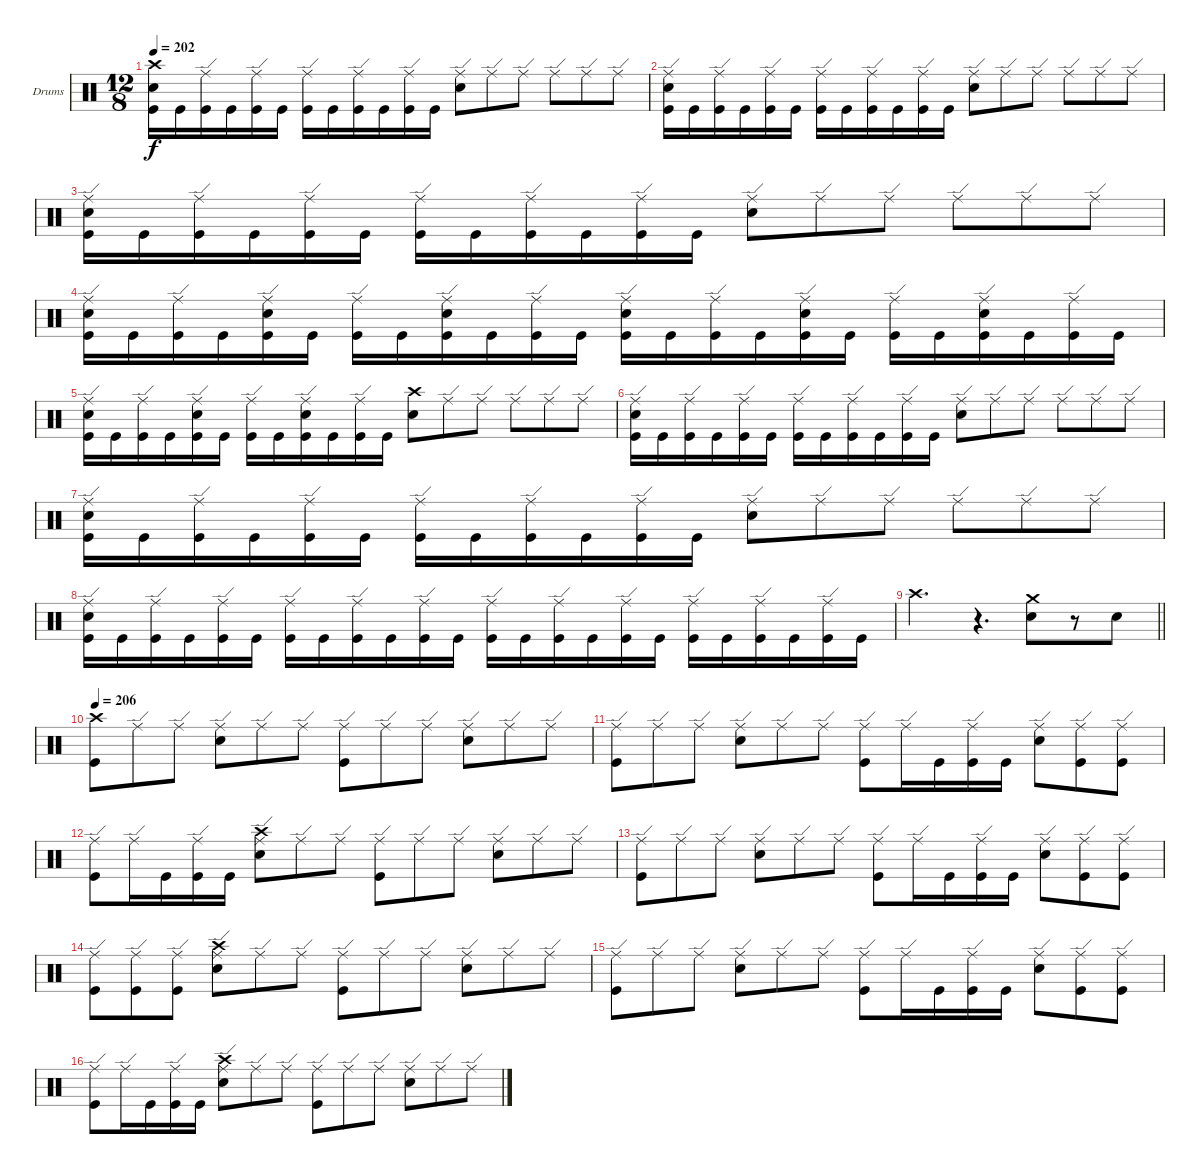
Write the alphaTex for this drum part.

\bracketExtendMode groupsimilarinstruments
\firstSystemTrackNameOrientation horizontal
\otherSystemsTrackNameOrientation horizontal
\track ("Drumkit" "Drums") {instrument percussion}
\staff {score}
\articulation defaults
\ts (12 8)
\tempo 202
\clef neutral
\ks c
("Kick (hit)" "Snare (hit) 2" "Crash high (hit)").16{dy f} "Kick (hit)".16 ("Kick (hit)" "Ride (edge)").16 "Kick (hit)".16 ("Kick (hit)" "Ride (edge)").16 "Kick (hit)".16 ("Kick (hit)" "Ride (edge)").16 "Kick (hit)".16 ("Kick (hit)" "Ride (edge)").16 "Kick (hit)".16 ("Kick (hit)" "Ride (edge)").16 "Kick (hit)".16 ("Snare (hit) 2" "Ride (edge)").8 "Ride (edge)".8 "Ride (edge)".8 "Ride (edge)".8 "Ride (edge)".8 "Ride (edge)".8 |
("Kick (hit)" "Snare (hit) 2" "Ride (edge)").16 "Kick (hit)".16 ("Kick (hit)" "Ride (edge)").16 "Kick (hit)".16 ("Kick (hit)" "Ride (edge)").16 "Kick (hit)".16 ("Kick (hit)" "Ride (edge)").16 "Kick (hit)".16 ("Kick (hit)" "Ride (edge)").16 "Kick (hit)".16 ("Kick (hit)" "Ride (edge)").16 "Kick (hit)".16 ("Snare (hit) 2" "Ride (edge)").8 "Ride (edge)".8 "Ride (edge)".8 "Ride (edge)".8 "Ride (edge)".8 "Ride (edge)".8 |
("Kick (hit)" "Snare (hit) 2" "Ride (edge)").16 "Kick (hit)".16 ("Kick (hit)" "Ride (edge)").16 "Kick (hit)".16 ("Kick (hit)" "Ride (edge)").16 "Kick (hit)".16 ("Kick (hit)" "Ride (edge)").16 "Kick (hit)".16 ("Kick (hit)" "Ride (edge)").16 "Kick (hit)".16 ("Kick (hit)" "Ride (edge)").16 "Kick (hit)".16 ("Snare (hit) 2" "Ride (edge)").8 "Ride (edge)".8 "Ride (edge)".8 "Ride (edge)".8 "Ride (edge)".8 "Ride (edge)".8 |
("Kick (hit)" "Snare (hit) 2" "Ride (edge)").16 "Kick (hit)".16 ("Kick (hit)" "Ride (edge)").16 "Kick (hit)".16 ("Kick (hit)" "Snare (hit) 2" "Ride (edge)").16 "Kick (hit)".16 ("Kick (hit)" "Ride (edge)").16 "Kick (hit)".16 ("Kick (hit)" "Snare (hit) 2" "Ride (edge)").16 "Kick (hit)".16 ("Kick (hit)" "Ride (edge)").16 "Kick (hit)".16 ("Kick (hit)" "Snare (hit) 2" "Ride (edge)").16 "Kick (hit)".16 ("Kick (hit)" "Ride (edge)").16 "Kick (hit)".16 ("Kick (hit)" "Snare (hit) 2" "Ride (edge)").16 "Kick (hit)".16 ("Kick (hit)" "Ride (edge)").16 "Kick (hit)".16 ("Kick (hit)" "Snare (hit) 2" "Ride (edge)").16 "Kick (hit)".16 ("Kick (hit)" "Ride (edge)").16 "Kick (hit)".16 |
("Kick (hit)" "Snare (hit) 2" "Ride (edge)").16 "Kick (hit)".16 ("Kick (hit)" "Ride (edge)").16 "Kick (hit)".16 ("Kick (hit)" "Snare (hit) 2" "Ride (edge)").16 "Kick (hit)".16 ("Kick (hit)" "Ride (edge)").16 "Kick (hit)".16 ("Kick (hit)" "Snare (hit) 2" "Ride (edge)").16 "Kick (hit)".16 ("Kick (hit)" "Ride (edge)").16 "Kick (hit)".16 ("Snare (hit) 2" "Crash high (hit)").8 "Ride (edge)".8 "Ride (edge)".8 "Ride (edge)".8 "Ride (edge)".8 "Ride (edge)".8 |
("Kick (hit)" "Snare (hit) 2" "Ride (edge)").16 "Kick (hit)".16 ("Kick (hit)" "Ride (edge)").16 "Kick (hit)".16 ("Kick (hit)" "Ride (edge)").16 "Kick (hit)".16 ("Kick (hit)" "Ride (edge)").16 "Kick (hit)".16 ("Kick (hit)" "Ride (edge)").16 "Kick (hit)".16 ("Kick (hit)" "Ride (edge)").16 "Kick (hit)".16 ("Snare (hit) 2" "Ride (edge)").8 "Ride (edge)".8 "Ride (edge)".8 "Ride (edge)".8 "Ride (edge)".8 "Ride (edge)".8 |
("Kick (hit)" "Snare (hit) 2" "Ride (edge)").16 "Kick (hit)".16 ("Kick (hit)" "Ride (edge)").16 "Kick (hit)".16 ("Kick (hit)" "Ride (edge)").16 "Kick (hit)".16 ("Kick (hit)" "Ride (edge)").16 "Kick (hit)".16 ("Kick (hit)" "Ride (edge)").16 "Kick (hit)".16 ("Kick (hit)" "Ride (edge)").16 "Kick (hit)".16 ("Snare (hit) 2" "Ride (edge)").8 "Ride (edge)".8 "Ride (edge)".8 "Ride (edge)".8 "Ride (edge)".8 "Ride (edge)".8 |
("Kick (hit)" "Ride (edge)" "Snare (hit) 2").16 "Kick (hit)".16 ("Kick (hit)" "Ride (edge)").16 "Kick (hit)".16 ("Kick (hit)" "Ride (edge)").16 "Kick (hit)".16 ("Kick (hit)" "Ride (edge)").16 "Kick (hit)".16 ("Kick (hit)" "Ride (edge)").16 "Kick (hit)".16 ("Kick (hit)" "Ride (edge)").16 "Kick (hit)".16 ("Kick (hit)" "Ride (edge)").16 "Kick (hit)".16 ("Kick (hit)" "Ride (edge)").16 "Kick (hit)".16 ("Kick (hit)" "Ride (edge)").16 "Kick (hit)".16 ("Kick (hit)" "Ride (edge)").16 "Kick (hit)".16 ("Kick (hit)" "Ride (edge)").16 "Kick (hit)".16 ("Kick (hit)" "Ride (edge)").16 "Kick (hit)".16 |
\barLineRight lightlight "Crash high (hit)".2{d}
r.4{d} ("Crash medium (hit)" "Snare (hit) 2").8 r.8 "Snare (hit) 2".8 |
\tempo 206
("Crash high (hit)" "Kick (hit)").8 "Ride (edge)".8 "Ride (edge)".8 ("Ride (edge)" "Snare (hit) 2").8 "Ride (edge)".8 "Ride (edge)".8 ("Ride (edge)" "Kick (hit)").8 "Ride (edge)".8 "Ride (edge)".8 ("Ride (edge)" "Snare (hit) 2").8 "Ride (edge)".8 "Ride (edge)".8 |
("Ride (edge)" "Kick (hit)").8 "Ride (edge)".8 "Ride (edge)".8 ("Ride (edge)" "Snare (hit) 2").8 "Ride (edge)".8 "Ride (edge)".8 ("Ride (edge)" "Kick (hit)").8 "Ride (edge)".16 "Kick (hit)".16 ("Ride (edge)" "Kick (hit)").16 "Kick (hit)".16 ("Ride (edge)" "Snare (hit) 2").8 ("Ride (edge)" "Kick (hit)").8 ("Ride (edge)" "Kick (hit)").8 |
("Ride (edge)" "Kick (hit)").8 "Ride (edge)".16 "Kick (hit)".16 ("Ride (edge)" "Kick (hit)").16 "Kick (hit)".16 ("Ride (edge)" "Snare (hit) 2" "Crash high (hit)").8 "Ride (edge)".8 "Ride (edge)".8 ("Ride (edge)" "Kick (hit)").8 "Ride (edge)".8 "Ride (edge)".8 ("Ride (edge)" "Snare (hit) 2").8 "Ride (edge)".8 "Ride (edge)".8 |
("Ride (edge)" "Kick (hit)").8 "Ride (edge)".8 "Ride (edge)".8 ("Ride (edge)" "Snare (hit) 2").8 "Ride (edge)".8 "Ride (edge)".8 ("Ride (edge)" "Kick (hit)").8 "Ride (edge)".16 "Kick (hit)".16 ("Ride (edge)" "Kick (hit)").16 "Kick (hit)".16 ("Ride (edge)" "Snare (hit) 2").8 ("Ride (edge)" "Kick (hit)").8 ("Ride (edge)" "Kick (hit)").8 |
("Ride (edge)" "Kick (hit)").8 ("Ride (edge)" "Kick (hit)").8 ("Ride (edge)" "Kick (hit)").8 ("Ride (edge)" "Snare (hit) 2" "Crash high (hit)").8 "Ride (edge)".8 "Ride (edge)".8 ("Ride (edge)" "Kick (hit)").8 "Ride (edge)".8 "Ride (edge)".8 ("Ride (edge)" "Snare (hit) 2").8 "Ride (edge)".8 "Ride (edge)".8 |
("Ride (edge)" "Kick (hit)").8 "Ride (edge)".8 "Ride (edge)".8 ("Ride (edge)" "Snare (hit) 2").8 "Ride (edge)".8 "Ride (edge)".8 ("Ride (edge)" "Kick (hit)").8 "Ride (edge)".16 "Kick (hit)".16 ("Ride (edge)" "Kick (hit)").16 "Kick (hit)".16 ("Ride (edge)" "Snare (hit) 2").8 ("Ride (edge)" "Kick (hit)").8 ("Ride (edge)" "Kick (hit)").8 |
("Ride (edge)" "Kick (hit)").8 "Ride (edge)".16 "Kick (hit)".16 ("Ride (edge)" "Kick (hit)").16 "Kick (hit)".16 ("Ride (edge)" "Snare (hit) 2" "Crash high (hit)").8 "Ride (edge)".8 "Ride (edge)".8 ("Ride (edge)" "Kick (hit)").8 "Ride (edge)".8 "Ride (edge)".8 ("Ride (edge)" "Snare (hit) 2").8 "Ride (edge)".8 "Ride (edge)".8
